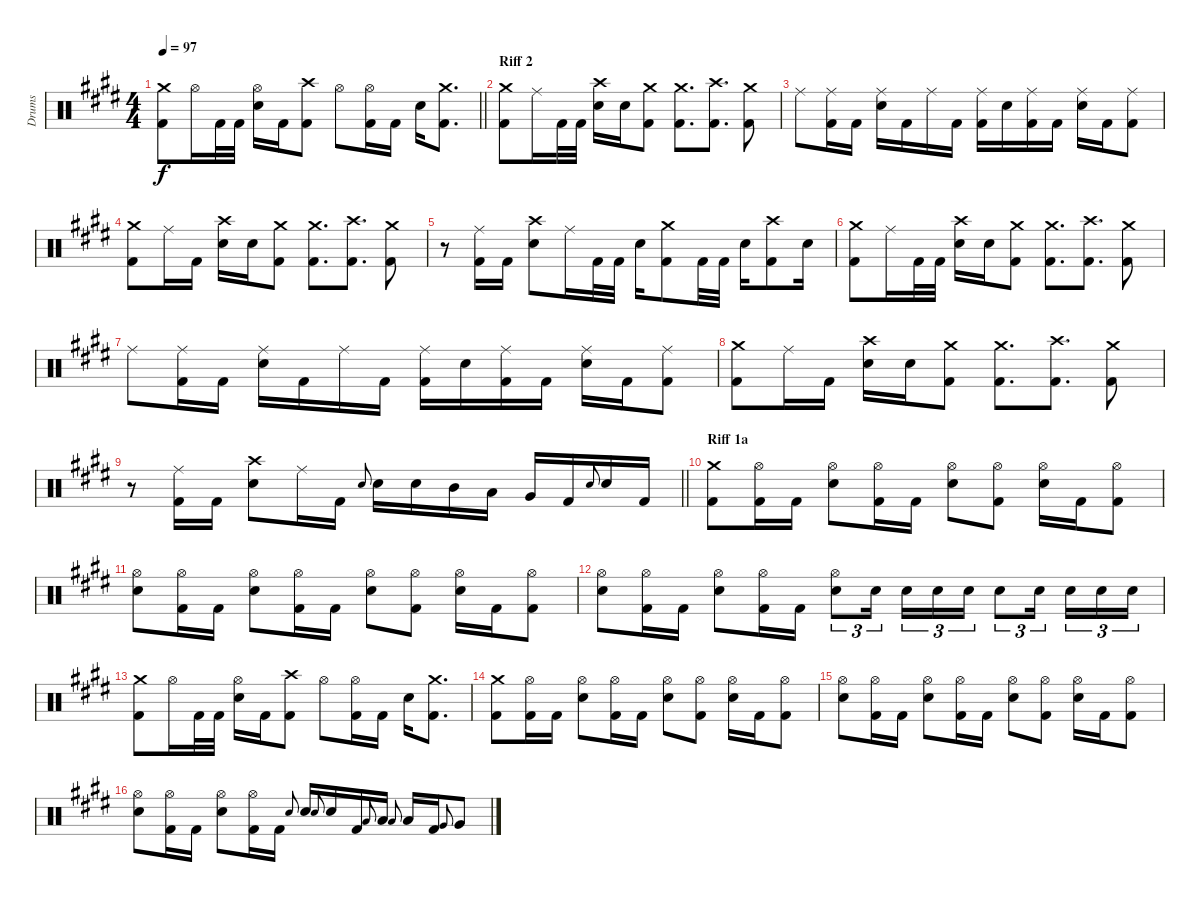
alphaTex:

\track ("Drums" "Drums") {instrument percussion}
\staff {score}
\articulation defaults
\ts (4 4)
\tempo 97
\clef neutral
\barLineRight lightlight
\ks e
("Kick (hit) 2" "Crash medium (hit)").8{dy f} "Hi-Hat (open)".16 "Kick (hit) 2".32 "Kick (hit) 2".32 ("Hi-Hat (open)" "Electric Snare (hit)").16 "Kick (hit) 2".16 ("Crash high (hit)" "Kick (hit) 2").8 "Hi-Hat (open)".8 ("Kick (hit) 2" "Hi-Hat (open)").16 "Kick (hit) 2".16 "Electric Snare (hit)".16 ("Kick (hit) 2" "Crash medium (hit)").8{d} |
\section ("" "Riff 2")
("Crash medium (hit)" "Kick (hit) 2").8 "Ride (middle)".16 "Kick (hit) 2".32 "Kick (hit) 2".32 ("Crash high (hit)" "Electric Snare (hit)").16 "Electric Snare (hit)".16 ("Kick (hit) 2" "Crash medium (hit)").8 ("Kick (hit) 2" "Crash medium (hit)").8{d} ("Kick (hit) 2" "Crash high (hit)").8{d} ("Kick (hit) 2" "Crash medium (hit)").8 |
"Ride (middle)".8 ("Kick (hit) 2" "Ride (middle)").16 "Kick (hit) 2".16 ("Electric Snare (hit)" "Ride (middle)").16 "Kick (hit) 2".16 "Ride (middle)".16 "Kick (hit) 2".16 ("Kick (hit) 2" "Ride (middle)").16 "Electric Snare (hit)".16 ("Kick (hit) 2" "Ride (middle)").16 "Kick (hit) 2".16 ("Electric Snare (hit)" "Ride (middle)").16 "Kick (hit) 2".16 ("Kick (hit) 2" "Ride (middle)").8 |
("Crash medium (hit)" "Kick (hit) 2").8 "Ride (middle)".16 "Kick (hit) 2".16 ("Crash high (hit)" "Electric Snare (hit)").16 "Electric Snare (hit)".16 ("Kick (hit) 2" "Crash medium (hit)").8 ("Kick (hit) 2" "Crash medium (hit)").8{d} ("Kick (hit) 2" "Crash high (hit)").8{d} ("Kick (hit) 2" "Crash medium (hit)").8 |
r.8 ("Kick (hit) 2" "Ride (middle)").16 "Kick (hit) 2".16 ("Electric Snare (hit)" "Crash high (hit)").8 "Ride (middle)".16 "Kick (hit) 2".32 "Kick (hit) 2".32 "Electric Snare (hit)".16 ("Kick (hit) 2" "Crash medium (hit)").8 "Kick (hit) 2".32 "Kick (hit) 2".32 "Electric Snare (hit)".16 ("Kick (hit) 2" "Crash high (hit)").8 "Electric Snare (hit)".16 |
("Crash medium (hit)" "Kick (hit) 2").8 "Ride (middle)".16 "Kick (hit) 2".32 "Kick (hit) 2".32 ("Crash high (hit)" "Electric Snare (hit)").16 "Electric Snare (hit)".16 ("Kick (hit) 2" "Crash medium (hit)").8 ("Kick (hit) 2" "Crash medium (hit)").8{d} ("Kick (hit) 2" "Crash high (hit)").8{d} ("Kick (hit) 2" "Crash medium (hit)").8 |
"Ride (middle)".8 ("Kick (hit) 2" "Ride (middle)").16 "Kick (hit) 2".16 ("Electric Snare (hit)" "Ride (middle)").16 "Kick (hit) 2".16 "Ride (middle)".16 "Kick (hit) 2".16 ("Kick (hit) 2" "Ride (middle)").16 "Electric Snare (hit)".16 ("Kick (hit) 2" "Ride (middle)").16 "Kick (hit) 2".16 ("Electric Snare (hit)" "Ride (middle)").16 "Kick (hit) 2".16 ("Kick (hit) 2" "Ride (middle)").8 |
("Crash medium (hit)" "Kick (hit) 2").8 "Ride (middle)".16 "Kick (hit) 2".16 ("Crash high (hit)" "Electric Snare (hit)").16 "Electric Snare (hit)".16 ("Kick (hit) 2" "Crash medium (hit)").8 ("Kick (hit) 2" "Crash medium (hit)").8{d} ("Kick (hit) 2" "Crash high (hit)").8{d} ("Kick (hit) 2" "Crash medium (hit)").8 |
\barLineRight lightlight
r.8 ("Kick (hit) 2" "Ride (middle)").16 "Kick (hit) 2".16 ("Electric Snare (hit)" "Crash high (hit)").8 "Ride (middle)".16 "Kick (hit) 2".16 "Electric Snare (hit)".8{gr onbeat} "Electric Snare (hit)".16 "Electric Snare (hit)".16 "Mid Tom (hit)".16 "Low Tom (hit)".16 "Very Low Tom (hit)".16 "Kick (hit) 2".16 "Electric Snare (hit)".8{gr onbeat} "Electric Snare (hit)".16 "Kick (hit) 2".16 |
\section ("" "Riff 1a")
("Crash medium (hit)" "Kick (hit) 2").8 ("Hi-Hat (open)" "Kick (hit) 2").16 "Kick (hit) 2".16 ("Hi-Hat (open)" "Electric Snare (hit)").8 ("Hi-Hat (open)" "Kick (hit) 2").16 "Kick (hit) 2".16 ("Hi-Hat (open)" "Electric Snare (hit)").8 ("Kick (hit) 2" "Hi-Hat (open)").8 ("Electric Snare (hit)" "Hi-Hat (open)").16 "Kick (hit) 2".16 ("Kick (hit) 2" "Hi-Hat (open)").8 |
("Hi-Hat (open)" "Electric Snare (hit)").8 ("Hi-Hat (open)" "Kick (hit) 2").16 "Kick (hit) 2".16 ("Hi-Hat (open)" "Electric Snare (hit)").8 ("Hi-Hat (open)" "Kick (hit) 2").16 "Kick (hit) 2".16 ("Hi-Hat (open)" "Electric Snare (hit)").8 ("Kick (hit) 2" "Hi-Hat (open)").8 ("Electric Snare (hit)" "Hi-Hat (open)").16 "Kick (hit) 2".16 ("Kick (hit) 2" "Hi-Hat (open)").8 |
("Hi-Hat (open)" "Electric Snare (hit)").8 ("Hi-Hat (open)" "Kick (hit) 2").16 "Kick (hit) 2".16 ("Hi-Hat (open)" "Electric Snare (hit)").8 ("Hi-Hat (open)" "Kick (hit) 2").16 "Kick (hit) 2".16 ("Electric Snare (hit)" "Hi-Hat (open)").8{tu (3 2)} "Electric Snare (hit)".16{tu (3 2) beam splitsecondary} "Electric Snare (hit)".16{tu (3 2)} "Electric Snare (hit)".16{tu (3 2)} "Electric Snare (hit)".16{tu (3 2)} "Electric Snare (hit)".8{tu (3 2)} "Electric Snare (hit)".16{tu (3 2) beam splitsecondary} "Electric Snare (hit)".16{tu (3 2)} "Electric Snare (hit)".16{tu (3 2)} "Electric Snare (hit)".16{tu (3 2)} |
("Kick (hit) 2" "Crash medium (hit)").8 "Hi-Hat (open)".16 "Kick (hit) 2".32 "Kick (hit) 2".32 ("Hi-Hat (open)" "Electric Snare (hit)").16 "Kick (hit) 2".16 ("Crash high (hit)" "Kick (hit) 2").8 "Hi-Hat (open)".8 ("Kick (hit) 2" "Hi-Hat (open)").16 "Kick (hit) 2".16 "Electric Snare (hit)".16 ("Kick (hit) 2" "Crash medium (hit)").8{d} |
("Crash medium (hit)" "Kick (hit) 2").8 ("Hi-Hat (open)" "Kick (hit) 2").16 "Kick (hit) 2".16 ("Hi-Hat (open)" "Electric Snare (hit)").8 ("Hi-Hat (open)" "Kick (hit) 2").16 "Kick (hit) 2".16 ("Hi-Hat (open)" "Electric Snare (hit)").8 ("Kick (hit) 2" "Hi-Hat (open)").8 ("Electric Snare (hit)" "Hi-Hat (open)").16 "Kick (hit) 2".16 ("Kick (hit) 2" "Hi-Hat (open)").8 |
("Hi-Hat (open)" "Electric Snare (hit)").8 ("Hi-Hat (open)" "Kick (hit) 2").16 "Kick (hit) 2".16 ("Hi-Hat (open)" "Electric Snare (hit)").8 ("Hi-Hat (open)" "Kick (hit) 2").16 "Kick (hit) 2".16 ("Hi-Hat (open)" "Electric Snare (hit)").8 ("Kick (hit) 2" "Hi-Hat (open)").8 ("Electric Snare (hit)" "Hi-Hat (open)").16 "Kick (hit) 2".16 ("Kick (hit) 2" "Hi-Hat (open)").8 |
("Hi-Hat (open)" "Electric Snare (hit)").8 ("Hi-Hat (open)" "Kick (hit) 2").16 "Kick (hit) 2".16 ("Hi-Hat (open)" "Electric Snare (hit)").8 ("Hi-Hat (open)" "Kick (hit) 2").16 "Kick (hit) 2".16 "Electric Snare (hit)".8{gr onbeat} "Electric Snare (hit)".16 "Electric Snare (hit)".8{gr onbeat} "Electric Snare (hit)".16 "Kick (hit) 2".16 "Low Tom (hit)".8{gr onbeat} "Low Tom (hit)".16 "Low Tom (hit)".8{gr onbeat} "Low Tom (hit)".16 "Kick (hit) 2".16 "Very Low Tom (hit)".8{gr onbeat} "Very Low Tom (hit)".8
